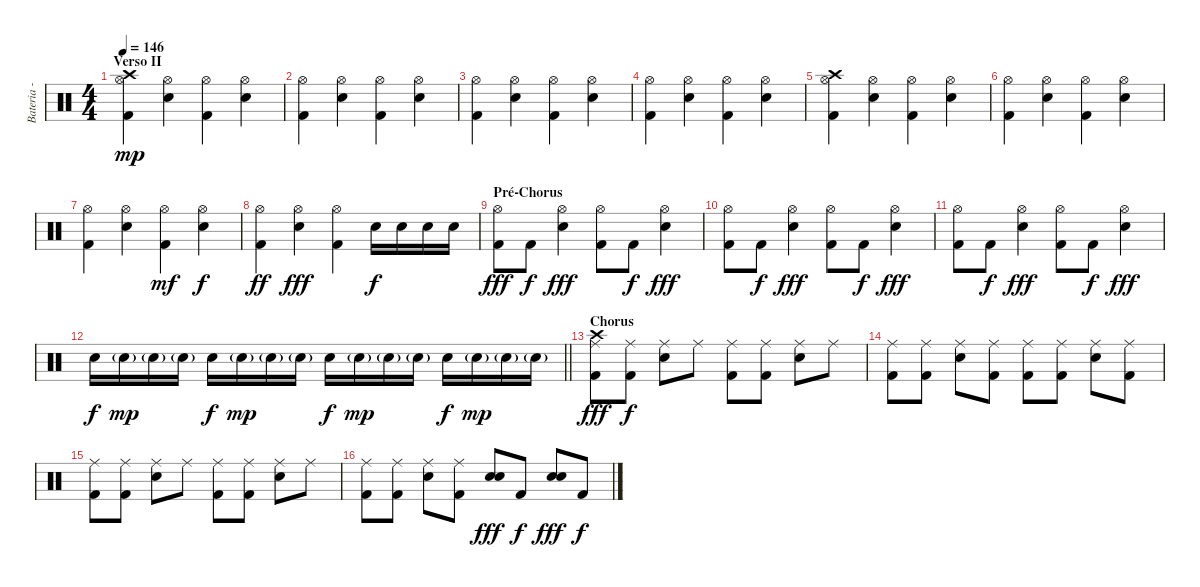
\track ("Bateria - Larzon" "Bateria - ") {instrument percussion}
\staff {score}
\articulation defaults
\ts (4 4)
\section ("" "Verso II")
\tempo 146
\clef neutral
\ks c
("Kick (hit) 2" "Hi-Hat (open)" "Crash high (hit)").4{dy mp} ("Electric Snare (hit)" "Hi-Hat (open)").4 ("Kick (hit) 2" "Hi-Hat (open)").4 ("Electric Snare (hit)" "Hi-Hat (open)").4 |
("Kick (hit) 2" "Hi-Hat (open)").4 ("Electric Snare (hit)" "Hi-Hat (open)").4 ("Kick (hit) 2" "Hi-Hat (open)").4 ("Electric Snare (hit)" "Hi-Hat (open)").4 |
("Kick (hit) 2" "Hi-Hat (open)").4 ("Electric Snare (hit)" "Hi-Hat (open)").4 ("Kick (hit) 2" "Hi-Hat (open)").4 ("Electric Snare (hit)" "Hi-Hat (open)").4 |
("Kick (hit) 2" "Hi-Hat (open)").4 ("Electric Snare (hit)" "Hi-Hat (open)").4 ("Kick (hit) 2" "Hi-Hat (open)").4 ("Electric Snare (hit)" "Hi-Hat (open)").4 |
("Kick (hit) 2" "Hi-Hat (open)" "Crash high (hit)").4 ("Electric Snare (hit)" "Hi-Hat (open)").4 ("Kick (hit) 2" "Hi-Hat (open)").4 ("Electric Snare (hit)" "Hi-Hat (open)").4 |
("Kick (hit) 2" "Hi-Hat (open)").4 ("Electric Snare (hit)" "Hi-Hat (open)").4 ("Kick (hit) 2" "Hi-Hat (open)").4 ("Electric Snare (hit)" "Hi-Hat (open)").4 |
("Kick (hit) 2" "Hi-Hat (open)").4 ("Electric Snare (hit)" "Hi-Hat (open)").4 ("Kick (hit) 2" "Hi-Hat (open)").4{dy mf} ("Electric Snare (hit)" "Hi-Hat (open)").4{dy f} |
("Kick (hit) 2" "Hi-Hat (open)").4{dy ff} ("Electric Snare (hit)" "Hi-Hat (open)").4{dy fff} ("Kick (hit) 2" "Hi-Hat (open)").4 "Electric Snare (hit)".16{dy f} "Electric Snare (hit)".16 "Electric Snare (hit)".16 "Electric Snare (hit)".16 |
\section ("" "Pré-Chorus")
("Kick (hit) 2" "Hi-Hat (open)").8{dy fff} "Kick (hit) 2".8{dy f} ("Electric Snare (hit)" "Hi-Hat (open)").4{dy fff} ("Kick (hit) 2" "Hi-Hat (open)").8 "Kick (hit) 2".8{dy f} ("Electric Snare (hit)" "Hi-Hat (open)").4{dy fff} |
("Kick (hit) 2" "Hi-Hat (open)").8 "Kick (hit) 2".8{dy f} ("Electric Snare (hit)" "Hi-Hat (open)").4{dy fff} ("Kick (hit) 2" "Hi-Hat (open)").8 "Kick (hit) 2".8{dy f} ("Electric Snare (hit)" "Hi-Hat (open)").4{dy fff} |
("Kick (hit) 2" "Hi-Hat (open)").8 "Kick (hit) 2".8{dy f} ("Electric Snare (hit)" "Hi-Hat (open)").4{dy fff} ("Kick (hit) 2" "Hi-Hat (open)").8 "Kick (hit) 2".8{dy f} ("Electric Snare (hit)" "Hi-Hat (open)").4{dy fff} |
\barLineRight lightlight "Electric Snare (hit)".16{dy f} "Electric Snare (hit)"{g}.16{dy mp} "Electric Snare (hit)"{g}.16 "Electric Snare (hit)"{g}.16 "Electric Snare (hit)".16{dy f} "Electric Snare (hit)"{g}.16{dy mp} "Electric Snare (hit)"{g}.16 "Electric Snare (hit)"{g}.16 "Electric Snare (hit)".16{dy f} "Electric Snare (hit)"{g}.16{dy mp} "Electric Snare (hit)"{g}.16 "Electric Snare (hit)"{g}.16 "Electric Snare (hit)".16{dy f} "Electric Snare (hit)"{g}.16{dy mp} "Electric Snare (hit)"{g}.16 "Electric Snare (hit)"{g}.16
|
\section ("" "Chorus")
("Kick (hit) 2" "Ride (middle)" "Crash high (hit)").8{dy fff} ("Kick (hit) 2" "Ride (middle)").8{dy f} ("Electric Snare (hit)" "Ride (middle)").8 "Ride (middle)".8 ("Kick (hit) 2" "Ride (middle)").8 ("Kick (hit) 2" "Ride (middle)").8 ("Electric Snare (hit)" "Ride (middle)").8 "Ride (middle)".8 |
("Kick (hit) 2" "Ride (middle)").8 ("Kick (hit) 2" "Ride (middle)").8 ("Electric Snare (hit)" "Ride (middle)").8 ("Kick (hit) 2" "Ride (middle)").8 ("Kick (hit) 2" "Ride (middle)").8 ("Kick (hit) 2" "Ride (middle)").8 ("Electric Snare (hit)" "Ride (middle)").8 ("Kick (hit) 2" "Ride (middle)").8 |
("Kick (hit) 2" "Ride (middle)").8 ("Kick (hit) 2" "Ride (middle)").8 ("Electric Snare (hit)" "Ride (middle)").8 "Ride (middle)".8 ("Kick (hit) 2" "Ride (middle)").8 ("Kick (hit) 2" "Ride (middle)").8 ("Electric Snare (hit)" "Ride (middle)").8 "Ride (middle)".8 |
("Kick (hit) 2" "Ride (middle)").8 ("Kick (hit) 2" "Ride (middle)").8 ("Electric Snare (hit)" "Ride (middle)").8 ("Kick (hit) 2" "Ride (middle)").8 ("Electric Snare (hit)" "Electric Snare (hit)").8{dy fff} "Kick (hit) 2".8{dy f} ("Electric Snare (hit)" "Electric Snare (hit)").8{dy fff} "Kick (hit) 2".8{dy f}
